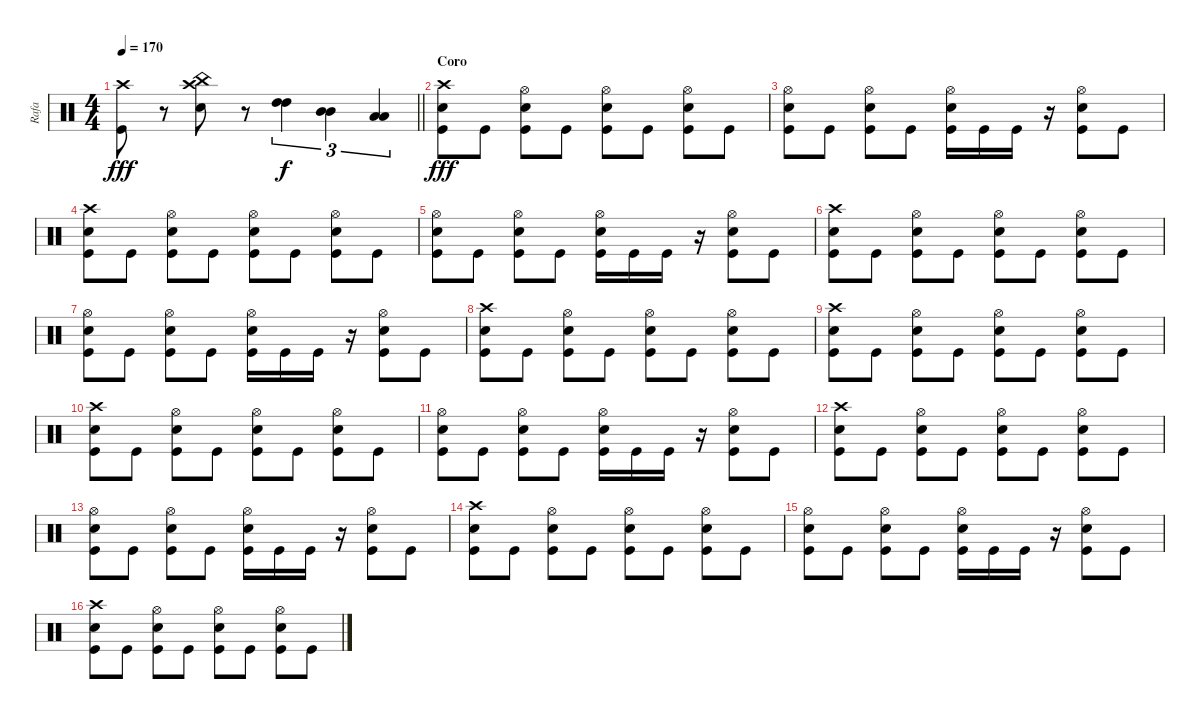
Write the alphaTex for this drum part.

\track ("Rafa" "Rafa") {instrument percussion}
\staff {score}
\articulation defaults
\ts (4 4)
\tempo 170
\clef neutral
\barLineRight lightlight
\ks c
("Crash high (hit)" "Kick (hit)").8{dy fff} r.8 ("China (hit)" "Crash high (hit)" "Electric Snare (hit)").8 r.8 ("High Tom (hit)" "High Tom (hit)").4{tu (3 2) dy f} ("Mid Tom (hit)" "Mid Tom (hit)").4{tu (3 2)} ("Low Tom (hit)" "Low Tom (hit)").4{tu (3 2)} |
\section ("" "Coro")
("Crash high (hit)" "Electric Snare (hit)" "Kick (hit)").8{dy fff} "Kick (hit)".8 ("Hi-Hat (open)" "Electric Snare (hit)" "Kick (hit)").8 "Kick (hit)".8 ("Hi-Hat (open)" "Electric Snare (hit)" "Kick (hit)").8 "Kick (hit)".8 ("Hi-Hat (open)" "Electric Snare (hit)" "Kick (hit)").8 "Kick (hit)".8 |
("Hi-Hat (open)" "Electric Snare (hit)" "Kick (hit)").8 "Kick (hit)".8 ("Hi-Hat (open)" "Electric Snare (hit)" "Kick (hit)").8 "Kick (hit)".8 ("Hi-Hat (open)" "Electric Snare (hit)" "Kick (hit)").16 "Kick (hit)".16 "Kick (hit)".16 r.16 ("Hi-Hat (open)" "Electric Snare (hit)" "Kick (hit)").8 "Kick (hit)".8 |
("Crash high (hit)" "Electric Snare (hit)" "Kick (hit)").8 "Kick (hit)".8 ("Hi-Hat (open)" "Electric Snare (hit)" "Kick (hit)").8 "Kick (hit)".8 ("Hi-Hat (open)" "Electric Snare (hit)" "Kick (hit)").8 "Kick (hit)".8 ("Hi-Hat (open)" "Electric Snare (hit)" "Kick (hit)").8 "Kick (hit)".8 |
("Hi-Hat (open)" "Electric Snare (hit)" "Kick (hit)").8 "Kick (hit)".8 ("Hi-Hat (open)" "Electric Snare (hit)" "Kick (hit)").8 "Kick (hit)".8 ("Hi-Hat (open)" "Electric Snare (hit)" "Kick (hit)").16 "Kick (hit)".16 "Kick (hit)".16 r.16 ("Hi-Hat (open)" "Electric Snare (hit)" "Kick (hit)").8 "Kick (hit)".8 |
("Crash high (hit)" "Electric Snare (hit)" "Kick (hit)").8 "Kick (hit)".8 ("Hi-Hat (open)" "Electric Snare (hit)" "Kick (hit)").8 "Kick (hit)".8 ("Hi-Hat (open)" "Electric Snare (hit)" "Kick (hit)").8 "Kick (hit)".8 ("Hi-Hat (open)" "Electric Snare (hit)" "Kick (hit)").8 "Kick (hit)".8 |
("Hi-Hat (open)" "Electric Snare (hit)" "Kick (hit)").8 "Kick (hit)".8 ("Hi-Hat (open)" "Electric Snare (hit)" "Kick (hit)").8 "Kick (hit)".8 ("Hi-Hat (open)" "Electric Snare (hit)" "Kick (hit)").16 "Kick (hit)".16 "Kick (hit)".16 r.16 ("Hi-Hat (open)" "Electric Snare (hit)" "Kick (hit)").8 "Kick (hit)".8 |
("Crash high (hit)" "Electric Snare (hit)" "Kick (hit)").8 "Kick (hit)".8 ("Hi-Hat (open)" "Electric Snare (hit)" "Kick (hit)").8 "Kick (hit)".8 ("Hi-Hat (open)" "Electric Snare (hit)" "Kick (hit)").8 "Kick (hit)".8 ("Hi-Hat (open)" "Electric Snare (hit)" "Kick (hit)").8 "Kick (hit)".8 |
("Crash high (hit)" "Electric Snare (hit)" "Kick (hit)").8 "Kick (hit)".8 ("Hi-Hat (open)" "Electric Snare (hit)" "Kick (hit)").8 "Kick (hit)".8 ("Hi-Hat (open)" "Electric Snare (hit)" "Kick (hit)").8 "Kick (hit)".8 ("Hi-Hat (open)" "Electric Snare (hit)" "Kick (hit)").8 "Kick (hit)".8 |
("Crash high (hit)" "Electric Snare (hit)" "Kick (hit)").8 "Kick (hit)".8 ("Hi-Hat (open)" "Electric Snare (hit)" "Kick (hit)").8 "Kick (hit)".8 ("Hi-Hat (open)" "Electric Snare (hit)" "Kick (hit)").8 "Kick (hit)".8 ("Hi-Hat (open)" "Electric Snare (hit)" "Kick (hit)").8 "Kick (hit)".8 |
("Hi-Hat (open)" "Electric Snare (hit)" "Kick (hit)").8 "Kick (hit)".8 ("Hi-Hat (open)" "Electric Snare (hit)" "Kick (hit)").8 "Kick (hit)".8 ("Hi-Hat (open)" "Electric Snare (hit)" "Kick (hit)").16 "Kick (hit)".16 "Kick (hit)".16 r.16 ("Hi-Hat (open)" "Electric Snare (hit)" "Kick (hit)").8 "Kick (hit)".8 |
("Crash high (hit)" "Electric Snare (hit)" "Kick (hit)").8 "Kick (hit)".8 ("Hi-Hat (open)" "Electric Snare (hit)" "Kick (hit)").8 "Kick (hit)".8 ("Hi-Hat (open)" "Electric Snare (hit)" "Kick (hit)").8 "Kick (hit)".8 ("Hi-Hat (open)" "Electric Snare (hit)" "Kick (hit)").8 "Kick (hit)".8 |
("Hi-Hat (open)" "Electric Snare (hit)" "Kick (hit)").8 "Kick (hit)".8 ("Hi-Hat (open)" "Electric Snare (hit)" "Kick (hit)").8 "Kick (hit)".8 ("Hi-Hat (open)" "Electric Snare (hit)" "Kick (hit)").16 "Kick (hit)".16 "Kick (hit)".16 r.16 ("Hi-Hat (open)" "Electric Snare (hit)" "Kick (hit)").8 "Kick (hit)".8 |
("Crash high (hit)" "Electric Snare (hit)" "Kick (hit)").8 "Kick (hit)".8 ("Hi-Hat (open)" "Electric Snare (hit)" "Kick (hit)").8 "Kick (hit)".8 ("Hi-Hat (open)" "Electric Snare (hit)" "Kick (hit)").8 "Kick (hit)".8 ("Hi-Hat (open)" "Electric Snare (hit)" "Kick (hit)").8 "Kick (hit)".8 |
("Hi-Hat (open)" "Electric Snare (hit)" "Kick (hit)").8 "Kick (hit)".8 ("Hi-Hat (open)" "Electric Snare (hit)" "Kick (hit)").8 "Kick (hit)".8 ("Hi-Hat (open)" "Electric Snare (hit)" "Kick (hit)").16 "Kick (hit)".16 "Kick (hit)".16 r.16 ("Hi-Hat (open)" "Electric Snare (hit)" "Kick (hit)").8 "Kick (hit)".8 |
("Crash high (hit)" "Electric Snare (hit)" "Kick (hit)").8 "Kick (hit)".8 ("Hi-Hat (open)" "Electric Snare (hit)" "Kick (hit)").8 "Kick (hit)".8 ("Hi-Hat (open)" "Electric Snare (hit)" "Kick (hit)").8 "Kick (hit)".8 ("Hi-Hat (open)" "Electric Snare (hit)" "Kick (hit)").8 "Kick (hit)".8
